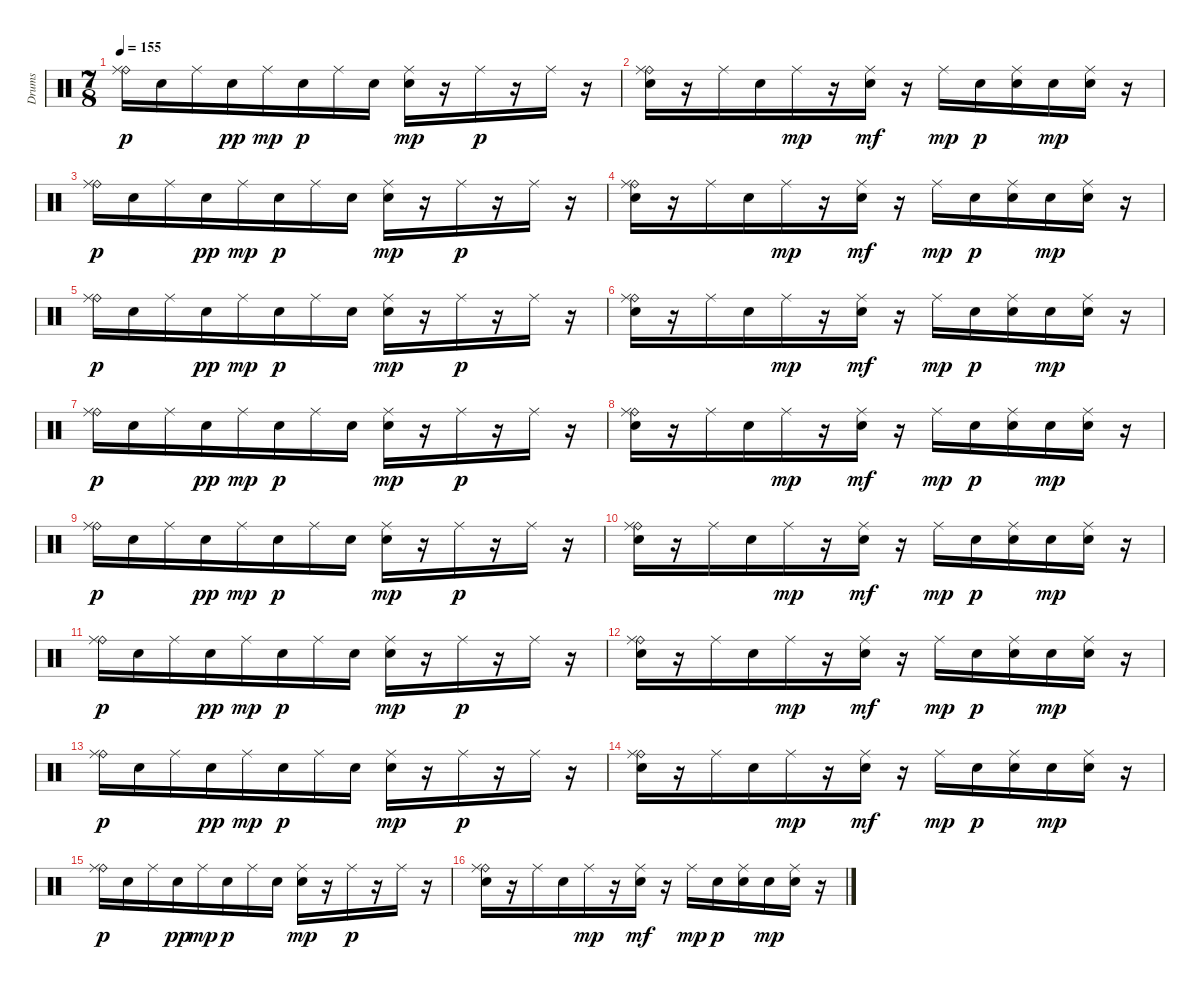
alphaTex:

\track ("Drums" "Drums") {instrument percussion}
\staff {score}
\articulation defaults
\ts (7 8)
\tempo 155
\clef neutral
\ks c
("Ride (bell)" "Ride (middle)").16{dy p} "Electric Snare (hit)".16 "Ride (middle)".16 "Electric Snare (hit)".16{dy pp} "Ride (middle)".16{dy mp} "Electric Snare (hit)".16{dy p} "Ride (middle)".16 "Electric Snare (hit)".16 ("Ride (middle)" "Electric Snare (hit)").16{dy mp} r.16 "Ride (middle)".16{dy p} r.16 "Ride (middle)".16 r.16 |
("Ride (bell)" "Ride (middle)" "Electric Snare (hit)").16 r.16 "Ride (middle)".16 "Electric Snare (hit)".16 "Ride (middle)".16{dy mp} r.16 ("Ride (middle)" "Electric Snare (hit)").16{dy mf} r.16 "Ride (middle)".16{dy mp} "Electric Snare (hit)".16{dy p} ("Ride (middle)" "Electric Snare (hit)").16 "Electric Snare (hit)".16{dy mp} ("Ride (middle)" "Electric Snare (hit)").16 r.16 |
("Ride (bell)" "Ride (middle)").16{dy p} "Electric Snare (hit)".16 "Ride (middle)".16 "Electric Snare (hit)".16{dy pp} "Ride (middle)".16{dy mp} "Electric Snare (hit)".16{dy p} "Ride (middle)".16 "Electric Snare (hit)".16 ("Ride (middle)" "Electric Snare (hit)").16{dy mp} r.16 "Ride (middle)".16{dy p} r.16 "Ride (middle)".16 r.16 |
("Ride (bell)" "Ride (middle)" "Electric Snare (hit)").16 r.16 "Ride (middle)".16 "Electric Snare (hit)".16 "Ride (middle)".16{dy mp} r.16 ("Ride (middle)" "Electric Snare (hit)").16{dy mf} r.16 "Ride (middle)".16{dy mp} "Electric Snare (hit)".16{dy p} ("Ride (middle)" "Electric Snare (hit)").16 "Electric Snare (hit)".16{dy mp} ("Ride (middle)" "Electric Snare (hit)").16 r.16 |
("Ride (bell)" "Ride (middle)").16{dy p} "Electric Snare (hit)".16 "Ride (middle)".16 "Electric Snare (hit)".16{dy pp} "Ride (middle)".16{dy mp} "Electric Snare (hit)".16{dy p} "Ride (middle)".16 "Electric Snare (hit)".16 ("Ride (middle)" "Electric Snare (hit)").16{dy mp} r.16 "Ride (middle)".16{dy p} r.16 "Ride (middle)".16 r.16 |
("Ride (bell)" "Ride (middle)" "Electric Snare (hit)").16 r.16 "Ride (middle)".16 "Electric Snare (hit)".16 "Ride (middle)".16{dy mp} r.16 ("Ride (middle)" "Electric Snare (hit)").16{dy mf} r.16 "Ride (middle)".16{dy mp} "Electric Snare (hit)".16{dy p} ("Ride (middle)" "Electric Snare (hit)").16 "Electric Snare (hit)".16{dy mp} ("Ride (middle)" "Electric Snare (hit)").16 r.16 |
("Ride (bell)" "Ride (middle)").16{dy p} "Electric Snare (hit)".16 "Ride (middle)".16 "Electric Snare (hit)".16{dy pp} "Ride (middle)".16{dy mp} "Electric Snare (hit)".16{dy p} "Ride (middle)".16 "Electric Snare (hit)".16 ("Ride (middle)" "Electric Snare (hit)").16{dy mp} r.16 "Ride (middle)".16{dy p} r.16 "Ride (middle)".16 r.16 |
("Ride (bell)" "Ride (middle)" "Electric Snare (hit)").16 r.16 "Ride (middle)".16 "Electric Snare (hit)".16 "Ride (middle)".16{dy mp} r.16 ("Ride (middle)" "Electric Snare (hit)").16{dy mf} r.16 "Ride (middle)".16{dy mp} "Electric Snare (hit)".16{dy p} ("Ride (middle)" "Electric Snare (hit)").16 "Electric Snare (hit)".16{dy mp} ("Ride (middle)" "Electric Snare (hit)").16 r.16 |
("Ride (bell)" "Ride (middle)").16{dy p} "Electric Snare (hit)".16 "Ride (middle)".16 "Electric Snare (hit)".16{dy pp} "Ride (middle)".16{dy mp} "Electric Snare (hit)".16{dy p} "Ride (middle)".16 "Electric Snare (hit)".16 ("Ride (middle)" "Electric Snare (hit)").16{dy mp} r.16 "Ride (middle)".16{dy p} r.16 "Ride (middle)".16 r.16 |
("Ride (bell)" "Ride (middle)" "Electric Snare (hit)").16 r.16 "Ride (middle)".16 "Electric Snare (hit)".16 "Ride (middle)".16{dy mp} r.16 ("Ride (middle)" "Electric Snare (hit)").16{dy mf} r.16 "Ride (middle)".16{dy mp} "Electric Snare (hit)".16{dy p} ("Ride (middle)" "Electric Snare (hit)").16 "Electric Snare (hit)".16{dy mp} ("Ride (middle)" "Electric Snare (hit)").16 r.16 |
("Ride (bell)" "Ride (middle)").16{dy p} "Electric Snare (hit)".16 "Ride (middle)".16 "Electric Snare (hit)".16{dy pp} "Ride (middle)".16{dy mp} "Electric Snare (hit)".16{dy p} "Ride (middle)".16 "Electric Snare (hit)".16 ("Ride (middle)" "Electric Snare (hit)").16{dy mp} r.16 "Ride (middle)".16{dy p} r.16 "Ride (middle)".16 r.16 |
("Ride (bell)" "Ride (middle)" "Electric Snare (hit)").16 r.16 "Ride (middle)".16 "Electric Snare (hit)".16 "Ride (middle)".16{dy mp} r.16 ("Ride (middle)" "Electric Snare (hit)").16{dy mf} r.16 "Ride (middle)".16{dy mp} "Electric Snare (hit)".16{dy p} ("Ride (middle)" "Electric Snare (hit)").16 "Electric Snare (hit)".16{dy mp} ("Ride (middle)" "Electric Snare (hit)").16 r.16 |
("Ride (bell)" "Ride (middle)").16{dy p} "Electric Snare (hit)".16 "Ride (middle)".16 "Electric Snare (hit)".16{dy pp} "Ride (middle)".16{dy mp} "Electric Snare (hit)".16{dy p} "Ride (middle)".16 "Electric Snare (hit)".16 ("Ride (middle)" "Electric Snare (hit)").16{dy mp} r.16 "Ride (middle)".16{dy p} r.16 "Ride (middle)".16 r.16 |
("Ride (bell)" "Ride (middle)" "Electric Snare (hit)").16 r.16 "Ride (middle)".16 "Electric Snare (hit)".16 "Ride (middle)".16{dy mp} r.16 ("Ride (middle)" "Electric Snare (hit)").16{dy mf} r.16 "Ride (middle)".16{dy mp} "Electric Snare (hit)".16{dy p} ("Ride (middle)" "Electric Snare (hit)").16 "Electric Snare (hit)".16{dy mp} ("Ride (middle)" "Electric Snare (hit)").16 r.16 |
("Ride (bell)" "Ride (middle)").16{dy p} "Electric Snare (hit)".16 "Ride (middle)".16 "Electric Snare (hit)".16{dy pp} "Ride (middle)".16{dy mp} "Electric Snare (hit)".16{dy p} "Ride (middle)".16 "Electric Snare (hit)".16 ("Ride (middle)" "Electric Snare (hit)").16{dy mp} r.16 "Ride (middle)".16{dy p} r.16 "Ride (middle)".16 r.16 |
("Ride (bell)" "Ride (middle)" "Electric Snare (hit)").16 r.16 "Ride (middle)".16 "Electric Snare (hit)".16 "Ride (middle)".16{dy mp} r.16 ("Ride (middle)" "Electric Snare (hit)").16{dy mf} r.16 "Ride (middle)".16{dy mp} "Electric Snare (hit)".16{dy p} ("Ride (middle)" "Electric Snare (hit)").16 "Electric Snare (hit)".16{dy mp} ("Ride (middle)" "Electric Snare (hit)").16 r.16
